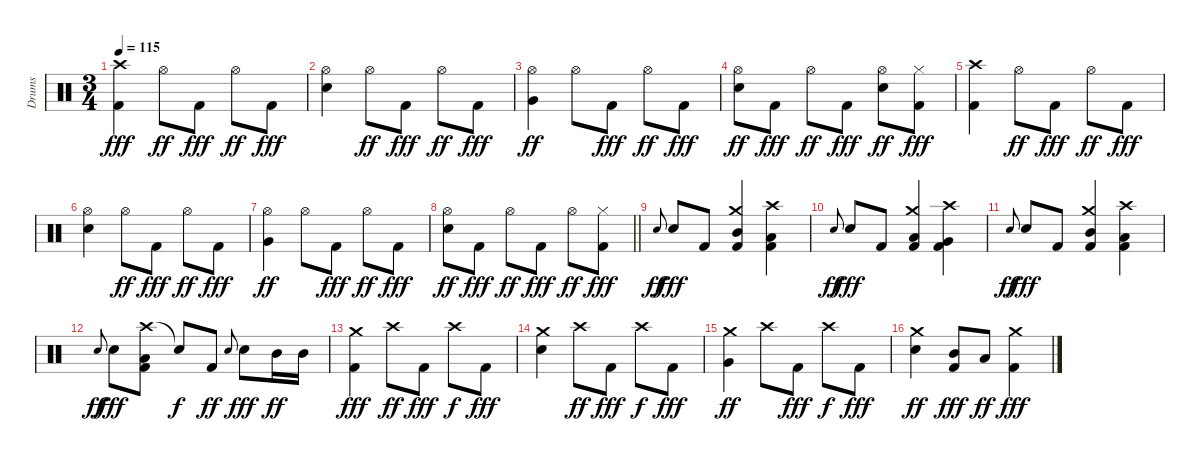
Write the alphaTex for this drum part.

\track ("Drums" "Drums") {instrument percussion}
\staff {score}
\articulation defaults
\ts (3 4)
\section ("" "")
\tempo 115
\clef neutral
\ks c
("Crash high (hit)" "Kick (hit) 2").4{dy fff} "Hi-Hat (open)".8{dy ff} "Kick (hit) 2".8{dy fff} "Hi-Hat (open)".8{dy ff} "Kick (hit) 2".8{dy fff} |
("Hi-Hat (open)" "Snare (hit) 2").4 "Hi-Hat (open)".8{dy ff} "Kick (hit) 2".8{dy fff} "Hi-Hat (open)".8{dy ff} "Kick (hit) 2".8{dy fff} |
("Hi-Hat (open)" "Very Low Tom (hit)").4{dy ff} "Hi-Hat (open)".8 "Kick (hit) 2".8{dy fff} "Hi-Hat (open)".8{dy ff} "Kick (hit) 2".8{dy fff} |
("Hi-Hat (open)" "Snare (hit) 2").8{dy ff} "Kick (hit) 2".8{dy fff} "Hi-Hat (open)".8{dy ff} "Kick (hit) 2".8{dy fff} ("Hi-Hat (open)" "Snare (hit) 2").8{dy ff} ("Hi-Hat (closed)" "Kick (hit) 2").8{dy fff} |
("Crash high (hit)" "Kick (hit) 2").4 "Hi-Hat (open)".8{dy ff} "Kick (hit) 2".8{dy fff} "Hi-Hat (open)".8{dy ff} "Kick (hit) 2".8{dy fff} |
("Hi-Hat (open)" "Snare (hit) 2").4 "Hi-Hat (open)".8{dy ff} "Kick (hit) 2".8{dy fff} "Hi-Hat (open)".8{dy ff} "Kick (hit) 2".8{dy fff} |
("Hi-Hat (open)" "Very Low Tom (hit)").4{dy ff} "Hi-Hat (open)".8 "Kick (hit) 2".8{dy fff} "Hi-Hat (open)".8{dy ff} "Kick (hit) 2".8{dy fff} |
\barLineRight lightlight
("Hi-Hat (open)" "Snare (hit) 2").8{dy ff} "Kick (hit) 2".8{dy fff} "Hi-Hat (open)".8{dy ff} "Kick (hit) 2".8{dy fff} "Hi-Hat (open)".8{dy ff} ("Hi-Hat (closed)" "Kick (hit) 2").8{dy fff} |
"Snare (hit) 2".8{gr onbeat dy ff} "Snare (hit) 2".8{dy fff} "Kick (hit) 2".8 ("Crash medium (hit)" "Mid Tom (hit)" "Kick (hit) 2").4 ("Crash high (hit)" "Low Tom (hit)" "Kick (hit) 2").4 |
"Snare (hit) 2".8{gr onbeat dy ff} "Snare (hit) 2".8{dy fff} "Kick (hit) 2".8 ("Crash medium (hit)" "Low Tom (hit)" "Kick (hit) 2").4 ("Crash high (hit)" "Very Low Tom (hit)" "Kick (hit) 2").4 |
"Snare (hit) 2".8{gr onbeat dy ff} "Snare (hit) 2".8{dy fff} "Kick (hit) 2".8 ("Crash medium (hit)" "Mid Tom (hit)" "Kick (hit) 2").4 ("Crash high (hit)" "Low Tom (hit)" "Kick (hit) 2").4 |
"Snare (hit) 2".8{gr onbeat dy ff} "Snare (hit) 2".8{dy fff} ("Crash high (hit)" "Low Tom (hit)" "Kick (hit) 2").8 "Snare (hit)"{t}.8{dy f} "Kick (hit) 2".8{dy ff} "Snare (hit) 2".8{gr onbeat} "Snare (hit) 2".8{dy fff} "Mid Tom (hit)".16{dy ff} "Mid Tom (hit)".16 |
("Crash medium (hit)" "Kick (hit) 2").4{dy fff} "Crash high (hit)".8{dy ff} "Kick (hit) 2".8{dy fff} "Crash high (hit)".8{dy f} "Kick (hit) 2".8{dy fff} |
("Crash medium (hit)" "Snare (hit) 2").4 "Crash high (hit)".8{dy ff} "Kick (hit) 2".8{dy fff} "Crash high (hit)".8{dy f} "Kick (hit) 2".8{dy fff} |
("Crash medium (hit)" "Very Low Tom (hit)").4{dy ff} "Crash high (hit)".8 "Kick (hit) 2".8{dy fff} "Crash high (hit)".8{dy f} "Kick (hit) 2".8{dy fff} |
("Crash medium (hit)" "Snare (hit) 2").4{dy ff} ("Mid Tom (hit)" "Kick (hit) 2").8{dy fff} "Low Tom (hit)".8{dy ff} ("Crash medium (hit)" "Kick (hit) 2").4{dy fff}
